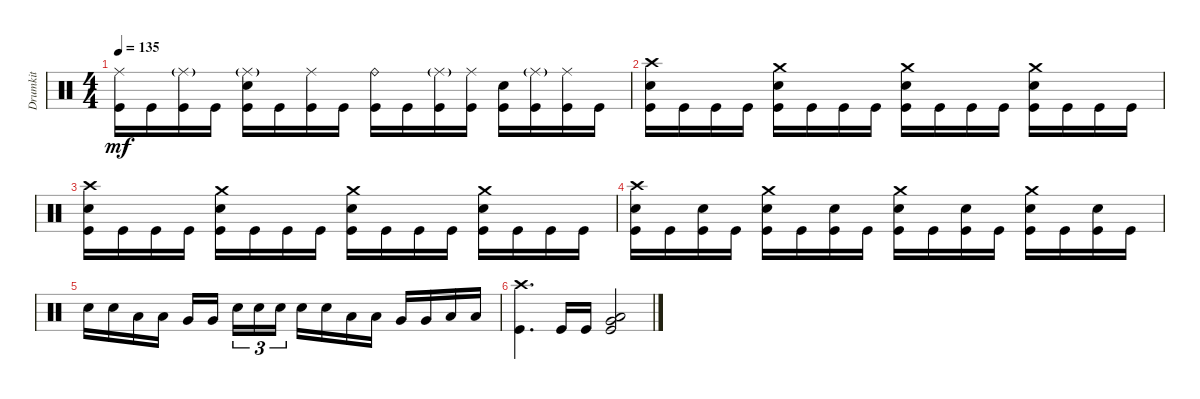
\track ("Drumkit" "Drumkit") {instrument percussion}
\staff {score}
\articulation defaults
\ts (4 4)
\tempo 135
\clef neutral
\ks c
("Kick (hit)" "Ride (middle)").16{dy mf} "Kick (hit)".16 ("Kick (hit)" "Ride (middle)"{g}).16 "Kick (hit)".16 ("Kick (hit)" "Snare (hit) 2" "Ride (middle)"{g}).16 "Kick (hit)".16 ("Kick (hit)" "Ride (middle)").16 "Kick (hit)".16 ("Kick (hit)" "Ride (bell)").16 "Kick (hit)".16 ("Kick (hit)" "Ride (middle)"{g}).16 ("Kick (hit)" "Ride (middle)").16 ("Kick (hit)" "Snare (hit) 2").16 ("Kick (hit)" "Ride (middle)"{g}).16 ("Kick (hit)" "Ride (middle)").16 "Kick (hit)".16 |
("Kick (hit)" "Snare (hit) 2" "Crash high (hit)").16 "Kick (hit)".16 "Kick (hit)".16 "Kick (hit)".16 ("Kick (hit)" "Snare (hit) 2" "Crash medium (hit)").16 "Kick (hit)".16 "Kick (hit)".16 "Kick (hit)".16 ("Kick (hit)" "Snare (hit) 2" "Crash medium (hit)").16 "Kick (hit)".16 "Kick (hit)".16 "Kick (hit)".16 ("Kick (hit)" "Snare (hit) 2" "Crash medium (hit)").16 "Kick (hit)".16 "Kick (hit)".16 "Kick (hit)".16 |
("Kick (hit)" "Snare (hit) 2" "Crash high (hit)").16 "Kick (hit)".16 "Kick (hit)".16 "Kick (hit)".16 ("Kick (hit)" "Snare (hit) 2" "Crash medium (hit)").16 "Kick (hit)".16 "Kick (hit)".16 "Kick (hit)".16 ("Kick (hit)" "Snare (hit) 2" "Crash medium (hit)").16 "Kick (hit)".16 "Kick (hit)".16 "Kick (hit)".16 ("Kick (hit)" "Snare (hit) 2" "Crash medium (hit)").16 "Kick (hit)".16 "Kick (hit)".16 "Kick (hit)".16 |
("Kick (hit)" "Snare (hit) 2" "Crash high (hit)").16 "Kick (hit)".16 ("Kick (hit)" "Snare (hit) 2").16 "Kick (hit)".16 ("Kick (hit)" "Snare (hit) 2" "Crash medium (hit)").16 "Kick (hit)".16 ("Kick (hit)" "Snare (hit) 2").16 "Kick (hit)".16 ("Kick (hit)" "Snare (hit) 2" "Crash medium (hit)").16 "Kick (hit)".16 ("Kick (hit)" "Snare (hit) 2").16 "Kick (hit)".16 ("Kick (hit)" "Snare (hit) 2" "Crash medium (hit)").16 "Kick (hit)".16 ("Kick (hit)" "Snare (hit) 2").16 "Kick (hit)".16 |
"Snare (hit) 2".16 "Snare (hit) 2".16 "Low Tom (hit)".16 "Low Tom (hit)".16 "Very Low Tom (hit)".16 "Very Low Tom (hit)".16 "Snare (hit) 2".16{tu (3 2)} "Snare (hit) 2".16{tu (3 2)} "Snare (hit) 2".16{tu (3 2)} "Snare (hit) 2".16 "Snare (hit) 2".16 "Low Tom (hit)".16 "Low Tom (hit)".16 "Very Low Tom (hit)".16 "Very Low Tom (hit)".16 "Low Floor Tom (hit)".16 "Low Floor Tom (hit)".16 |
("Kick (hit)" "Crash high (hit)").4{d} "Kick (hit)".16 "Kick (hit)".16 ("Kick (hit)" "Low Floor Tom (hit)" "Very Low Tom (hit)").2
